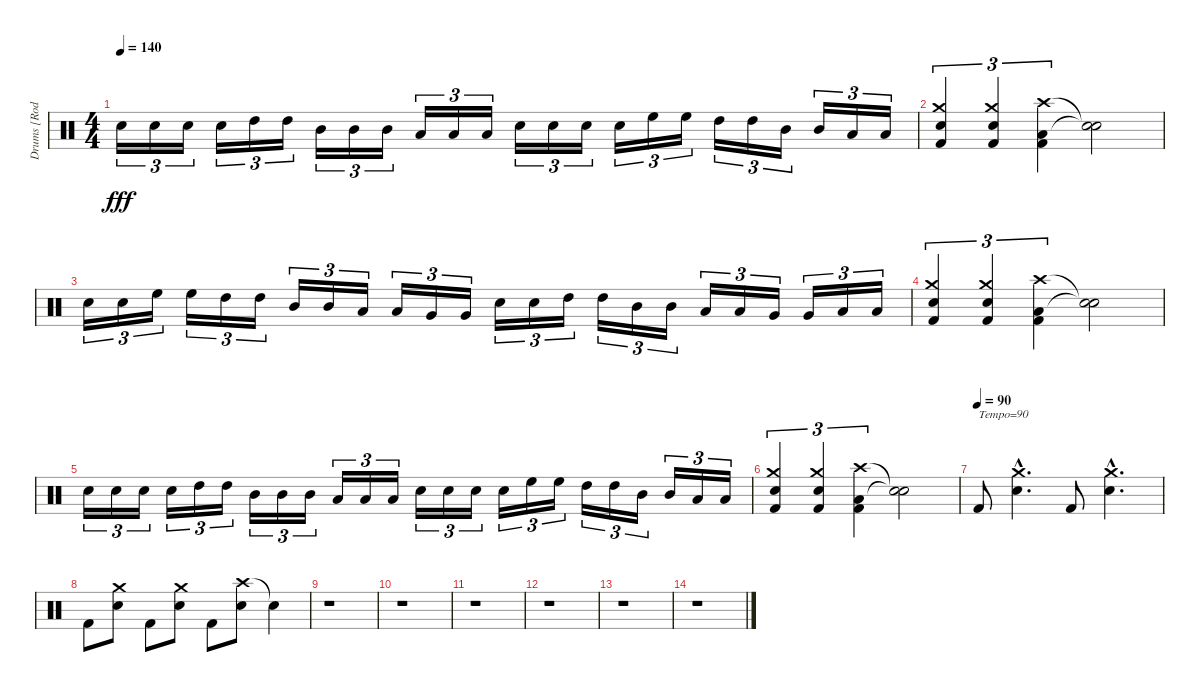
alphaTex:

\track ("Drums [Rodney Holder]" "Drums [Rod") {instrument percussion}
\staff {score}
\articulation defaults
\ts (4 4)
\tempo 140
\clef neutral
\ks c "Electric Snare (hit)".16{tu (3 2) dy fff} "Electric Snare (hit)".16{tu (3 2)} "Electric Snare (hit)".16{tu (3 2)} "Electric Snare (hit)".16{tu (3 2)} "High Tom (hit)".16{tu (3 2)} "High Tom (hit)".16{tu (3 2)} "Mid Tom (hit)".16{tu (3 2)} "Mid Tom (hit)".16{tu (3 2)} "Mid Tom (hit)".16{tu (3 2)} "Low Tom (hit)".16{tu (3 2)} "Low Tom (hit)".16{tu (3 2)} "Low Tom (hit)".16{tu (3 2)} "Electric Snare (hit)".16{tu (3 2)} "Electric Snare (hit)".16{tu (3 2)} "Electric Snare (hit)".16{tu (3 2)} "Electric Snare (hit)".16{tu (3 2)} "High Floor Tom (hit)".16{tu (3 2)} "High Floor Tom (hit)".16{tu (3 2)} "High Tom (hit)".16{tu (3 2)} "High Tom (hit)".16{tu (3 2)} "Mid Tom (hit)".16{tu (3 2)} "Mid Tom (hit)".16{tu (3 2)} "Low Tom (hit)".16{tu (3 2)} "Low Tom (hit)".16{tu (3 2)}
|
("Crash medium (hit)" "Electric Snare (hit)" "Kick (hit) 2").4{tu (3 2)} ("Crash medium (hit)" "Electric Snare (hit)" "Kick (hit) 2").4{tu (3 2)} ("Crash high (hit)" "Low Tom (hit)" "Kick (hit) 2").4{tu (3 2)} ("Snare (hit)"{t} "Snare (hit)"{t}).2 |
"Electric Snare (hit)".16{tu (3 2)} "Electric Snare (hit)".16{tu (3 2)} "High Floor Tom (hit)".16{tu (3 2)} "High Floor Tom (hit)".16{tu (3 2)} "High Tom (hit)".16{tu (3 2)} "High Tom (hit)".16{tu (3 2)} "Mid Tom (hit)".16{tu (3 2)} "Mid Tom (hit)".16{tu (3 2)} "Low Tom (hit)".16{tu (3 2)} "Low Tom (hit)".16{tu (3 2)} "Very Low Tom (hit)".16{tu (3 2)} "Very Low Tom (hit)".16{tu (3 2)} "Electric Snare (hit)".16{tu (3 2)} "Electric Snare (hit)".16{tu (3 2)} "High Tom (hit)".16{tu (3 2)} "High Tom (hit)".16{tu (3 2)} "Mid Tom (hit)".16{tu (3 2)} "Mid Tom (hit)".16{tu (3 2)} "Low Tom (hit)".16{tu (3 2)} "Low Tom (hit)".16{tu (3 2)} "Very Low Tom (hit)".16{tu (3 2)} "Very Low Tom (hit)".16{tu (3 2)} "Low Floor Tom (hit)".16{tu (3 2)} "Low Floor Tom (hit)".16{tu (3 2)} |
("Crash medium (hit)" "Electric Snare (hit)" "Kick (hit) 2").4{tu (3 2)} ("Crash medium (hit)" "Electric Snare (hit)" "Kick (hit) 2").4{tu (3 2)} ("Crash high (hit)" "Low Tom (hit)" "Kick (hit) 2").4{tu (3 2)} ("Snare (hit)"{t} "Snare (hit)"{t}).2 |
"Electric Snare (hit)".16{tu (3 2)} "Electric Snare (hit)".16{tu (3 2)} "Electric Snare (hit)".16{tu (3 2)} "Electric Snare (hit)".16{tu (3 2)} "High Tom (hit)".16{tu (3 2)} "High Tom (hit)".16{tu (3 2)} "Mid Tom (hit)".16{tu (3 2)} "Mid Tom (hit)".16{tu (3 2)} "Mid Tom (hit)".16{tu (3 2)} "Low Tom (hit)".16{tu (3 2)} "Low Tom (hit)".16{tu (3 2)} "Low Tom (hit)".16{tu (3 2)} "Electric Snare (hit)".16{tu (3 2)} "Electric Snare (hit)".16{tu (3 2)} "Electric Snare (hit)".16{tu (3 2)} "Electric Snare (hit)".16{tu (3 2)} "High Floor Tom (hit)".16{tu (3 2)} "High Floor Tom (hit)".16{tu (3 2)} "High Tom (hit)".16{tu (3 2)} "High Tom (hit)".16{tu (3 2)} "Mid Tom (hit)".16{tu (3 2)} "Mid Tom (hit)".16{tu (3 2)} "Low Tom (hit)".16{tu (3 2)} "Low Tom (hit)".16{tu (3 2)} |
("Crash medium (hit)" "Electric Snare (hit)" "Kick (hit) 2").4{tu (3 2)} ("Crash medium (hit)" "Electric Snare (hit)" "Kick (hit) 2").4{tu (3 2)} ("Crash high (hit)" "Low Tom (hit)" "Kick (hit) 2").4{tu (3 2)} ("Snare (hit)"{t} "Snare (hit)"{t}).2 |
\tempo (90)
"Kick (hit) 2".8{txt "Tempo=90"} ("Crash medium (hit)"{hac} "Electric Snare (hit)"{hac}).4{d} "Kick (hit) 2".8 ("Crash medium (hit)"{hac} "Electric Snare (hit)"{hac}).4{d} |
"Kick (hit) 2".8 ("Crash medium (hit)" "Electric Snare (hit)").8 "Kick (hit) 2".8 ("Crash medium (hit)" "Electric Snare (hit)").8 "Kick (hit) 2".8 ("Crash high (hit)" "Electric Snare (hit)").8 "Snare (hit)"{t}.4 |
r.1 |
r.1 |
r.1 |
r.1 |
r.1 |
r.1
